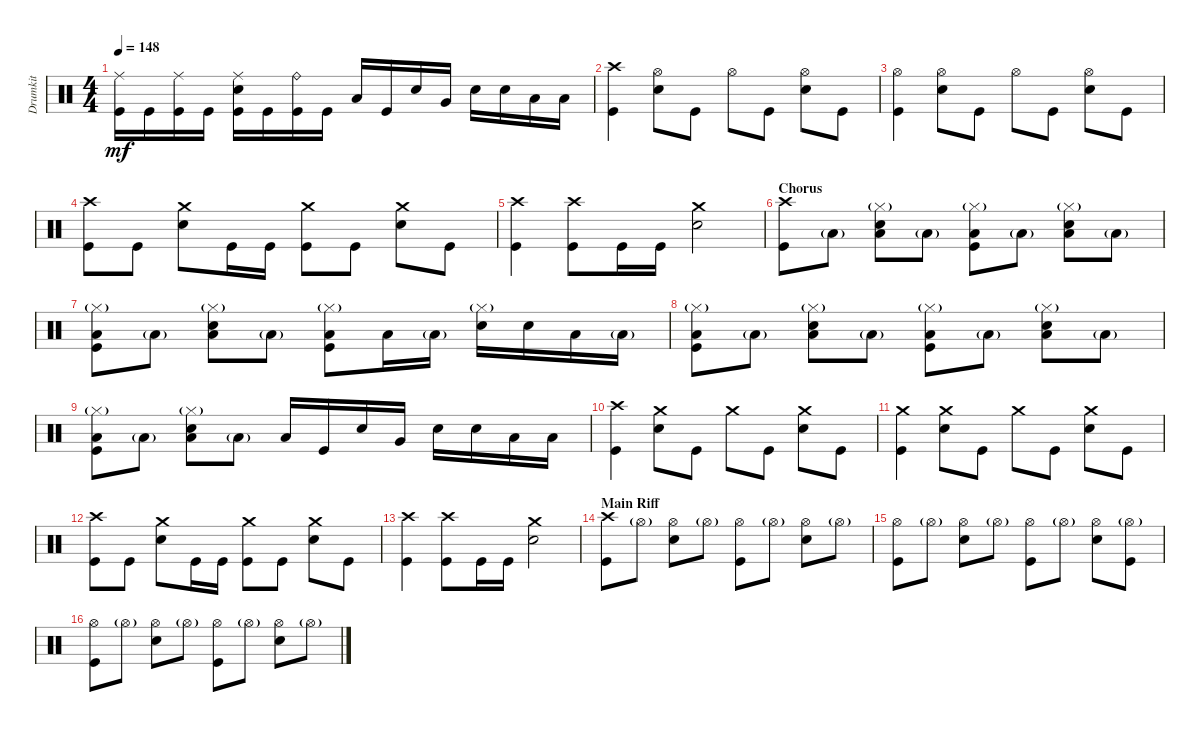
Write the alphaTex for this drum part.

\track ("Drumkit" "Drumkit") {instrument percussion}
\staff {score}
\articulation defaults
\ts (4 4)
\tempo 148
\clef neutral
\ks c
("Kick (hit)" "Ride (middle)").16{dy mf} "Kick (hit)".16 ("Kick (hit)" "Ride (middle)").16 "Kick (hit)".16 ("Kick (hit)" "Ride (middle)" "Snare (hit) 2").16 "Kick (hit)".16 ("Kick (hit)" "Ride (bell)").16 "Kick (hit)".16 "Low Tom (hit)".16 "Kick (hit)".16 "Snare (hit) 2".16 "Very Low Tom (hit)".16 "Snare (hit) 2".16 "Snare (hit) 2".16 "Low Floor Tom (hit)".16 "Low Floor Tom (hit)".16 |
("Crash high (hit)" "Kick (hit)").4 ("Hi-Hat (open)" "Snare (hit) 2").8 "Kick (hit)".8 "Hi-Hat (open)".8 "Kick (hit)".8 ("Hi-Hat (open)" "Snare (hit) 2").8 "Kick (hit)".8 |
("Kick (hit)" "Hi-Hat (open)").4 ("Hi-Hat (open)" "Snare (hit) 2").8 "Kick (hit)".8 "Hi-Hat (open)".8 "Kick (hit)".8 ("Hi-Hat (open)" "Snare (hit) 2").8 "Kick (hit)".8 |
("Kick (hit)" "Crash high (hit)").8 "Kick (hit)".8 ("Snare (hit) 2" "Crash medium (hit)").8 "Kick (hit)".16 "Kick (hit)".16 ("Kick (hit)" "Crash medium (hit)").8 "Kick (hit)".8 ("Snare (hit) 2" "Crash medium (hit)").8 "Kick (hit)".8 |
("Kick (hit)" "Crash high (hit)").4 ("Kick (hit)" "Crash high (hit)").8 "Kick (hit)".16 "Kick (hit)".16 ("Snare (hit) 2" "Crash medium (hit)").2 |
\section ("" "Chorus")
("Crash high (hit)" "Kick (hit)").8 "Low Floor Tom (hit)"{g}.8 ("Low Floor Tom (hit)" "Snare (hit) 2" "Hi-Hat (closed)"{g}).8 "Low Floor Tom (hit)"{g}.8 ("Low Floor Tom (hit)" "Kick (hit)" "Hi-Hat (closed)"{g}).8 "Low Floor Tom (hit)"{g}.8 ("Low Floor Tom (hit)" "Snare (hit) 2" "Hi-Hat (closed)"{g}).8 "Low Floor Tom (hit)"{g}.8 |
("Kick (hit)" "Low Floor Tom (hit)" "Hi-Hat (closed)"{g}).8 "Low Floor Tom (hit)"{g}.8 ("Low Floor Tom (hit)" "Snare (hit) 2" "Hi-Hat (closed)"{g}).8 "Low Floor Tom (hit)"{g}.8 ("Kick (hit)" "Low Floor Tom (hit)" "Hi-Hat (closed)"{g}).8 "Low Floor Tom (hit)".16 "Low Floor Tom (hit)"{g}.16 ("Snare (hit) 2" "Hi-Hat (closed)"{g}).16 "Snare (hit) 2".16 "Low Floor Tom (hit)".16 "Low Floor Tom (hit)"{g}.16 |
("Kick (hit)" "Low Floor Tom (hit)" "Hi-Hat (closed)"{g}).8 "Low Floor Tom (hit)"{g}.8 ("Low Floor Tom (hit)" "Snare (hit) 2" "Hi-Hat (closed)"{g}).8 "Low Floor Tom (hit)"{g}.8 ("Low Floor Tom (hit)" "Kick (hit)" "Hi-Hat (closed)"{g}).8 "Low Floor Tom (hit)"{g}.8 ("Low Floor Tom (hit)" "Snare (hit) 2" "Hi-Hat (closed)"{g}).8 "Low Floor Tom (hit)"{g}.8 |
("Kick (hit)" "Low Floor Tom (hit)" "Hi-Hat (closed)"{g}).8 "Low Floor Tom (hit)"{g}.8 ("Low Floor Tom (hit)" "Snare (hit) 2" "Hi-Hat (closed)"{g}).8 "Low Floor Tom (hit)"{g}.8 "Low Tom (hit)".16 "Kick (hit)".16 "Snare (hit) 2".16 "Very Low Tom (hit)".16 "Snare (hit) 2".16 "Snare (hit) 2".16 "Low Floor Tom (hit)".16 "Low Floor Tom (hit)".16 |
("Crash high (hit)" "Kick (hit)").4 ("Snare (hit) 2" "Crash medium (hit)").8 "Kick (hit)".8 "Crash medium (hit)".8 "Kick (hit)".8 ("Snare (hit) 2" "Crash medium (hit)").8 "Kick (hit)".8 |
("Kick (hit)" "Crash medium (hit)").4 ("Snare (hit) 2" "Crash medium (hit)").8 "Kick (hit)".8 "Crash medium (hit)".8 "Kick (hit)".8 ("Snare (hit) 2" "Crash medium (hit)").8 "Kick (hit)".8 |
("Kick (hit)" "Crash high (hit)").8 "Kick (hit)".8 ("Snare (hit) 2" "Crash medium (hit)").8 "Kick (hit)".16 "Kick (hit)".16 ("Kick (hit)" "Crash medium (hit)").8 "Kick (hit)".8 ("Snare (hit) 2" "Crash medium (hit)").8 "Kick (hit)".8 |
("Kick (hit)" "Crash high (hit)").4 ("Kick (hit)" "Crash high (hit)").8 "Kick (hit)".16 "Kick (hit)".16 ("Snare (hit) 2" "Crash medium (hit)").2 |
\section ("" "Main Riff")
("Crash high (hit)" "Kick (hit)").8 "Hi-Hat (open)"{g}.8 ("Hi-Hat (open)" "Snare (hit) 2").8 "Hi-Hat (open)"{g}.8 ("Hi-Hat (open)" "Kick (hit)").8 "Hi-Hat (open)"{g}.8 ("Hi-Hat (open)" "Snare (hit) 2").8 "Hi-Hat (open)"{g}.8 |
("Kick (hit)" "Hi-Hat (open)").8 "Hi-Hat (open)"{g}.8 ("Hi-Hat (open)" "Snare (hit) 2").8 "Hi-Hat (open)"{g}.8 ("Hi-Hat (open)" "Kick (hit)").8 "Hi-Hat (open)"{g}.8 ("Hi-Hat (open)" "Snare (hit) 2").8 ("Hi-Hat (open)"{g} "Kick (hit)").8 |
("Kick (hit)" "Hi-Hat (open)").8 "Hi-Hat (open)"{g}.8 ("Hi-Hat (open)" "Snare (hit) 2").8 "Hi-Hat (open)"{g}.8 ("Hi-Hat (open)" "Kick (hit)").8 "Hi-Hat (open)"{g}.8 ("Hi-Hat (open)" "Snare (hit) 2").8 "Hi-Hat (open)"{g}.8
